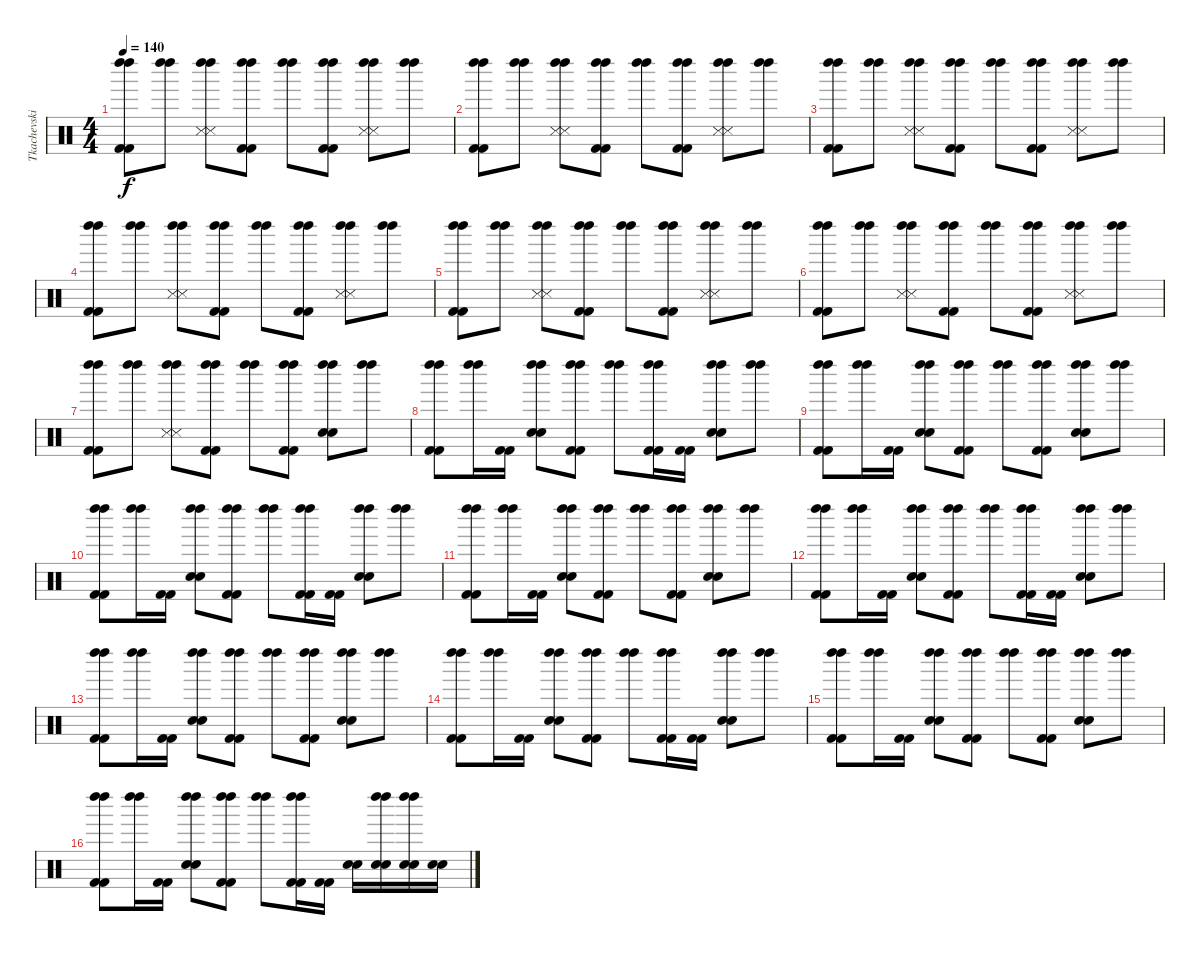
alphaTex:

\track ("Tkachevskiy A" "Tkachevski") {instrument percussion}
\staff {score}
\articulation defaults
\ts (4 4)
\tempo 140
\clef neutral
\ks c
("Kick (hit) 2" "Left Maraca (hit)" "Kick (hit) 2" "Left Maraca (hit)").8{dy f} ("Left Maraca (hit)" "Left Maraca (hit)").8 ("Snare (side stick) 3" "Left Maraca (hit)" "Snare (side stick) 3" "Left Maraca (hit)").8 ("Kick (hit) 2" "Left Maraca (hit)" "Kick (hit) 2" "Left Maraca (hit)").8 ("Left Maraca (hit)" "Left Maraca (hit)").8 ("Kick (hit) 2" "Left Maraca (hit)" "Kick (hit) 2" "Left Maraca (hit)").8 ("Snare (side stick) 3" "Left Maraca (hit)" "Snare (side stick) 3" "Left Maraca (hit)").8 ("Left Maraca (hit)" "Left Maraca (hit)").8 |
("Kick (hit) 2" "Left Maraca (hit)" "Kick (hit) 2" "Left Maraca (hit)").8 ("Left Maraca (hit)" "Left Maraca (hit)").8 ("Snare (side stick) 3" "Left Maraca (hit)" "Snare (side stick) 3" "Left Maraca (hit)").8 ("Kick (hit) 2" "Left Maraca (hit)" "Kick (hit) 2" "Left Maraca (hit)").8 ("Left Maraca (hit)" "Left Maraca (hit)").8 ("Kick (hit) 2" "Left Maraca (hit)" "Kick (hit) 2" "Left Maraca (hit)").8 ("Snare (side stick) 3" "Left Maraca (hit)" "Snare (side stick) 3" "Left Maraca (hit)").8 ("Left Maraca (hit)" "Left Maraca (hit)").8 |
("Kick (hit) 2" "Left Maraca (hit)" "Kick (hit) 2" "Left Maraca (hit)").8 ("Left Maraca (hit)" "Left Maraca (hit)").8 ("Snare (side stick) 3" "Left Maraca (hit)" "Snare (side stick) 3" "Left Maraca (hit)").8 ("Kick (hit) 2" "Left Maraca (hit)" "Kick (hit) 2" "Left Maraca (hit)").8 ("Left Maraca (hit)" "Left Maraca (hit)").8 ("Kick (hit) 2" "Left Maraca (hit)" "Kick (hit) 2" "Left Maraca (hit)").8 ("Snare (side stick) 3" "Left Maraca (hit)" "Snare (side stick) 3" "Left Maraca (hit)").8 ("Left Maraca (hit)" "Left Maraca (hit)").8 |
("Kick (hit) 2" "Left Maraca (hit)" "Kick (hit) 2" "Left Maraca (hit)").8 ("Left Maraca (hit)" "Left Maraca (hit)").8 ("Snare (side stick) 3" "Left Maraca (hit)" "Snare (side stick) 3" "Left Maraca (hit)").8 ("Kick (hit) 2" "Left Maraca (hit)" "Kick (hit) 2" "Left Maraca (hit)").8 ("Left Maraca (hit)" "Left Maraca (hit)").8 ("Kick (hit) 2" "Left Maraca (hit)" "Kick (hit) 2" "Left Maraca (hit)").8 ("Snare (side stick) 3" "Left Maraca (hit)" "Snare (side stick) 3" "Left Maraca (hit)").8 ("Left Maraca (hit)" "Left Maraca (hit)").8 |
("Kick (hit) 2" "Left Maraca (hit)" "Kick (hit) 2" "Left Maraca (hit)").8 ("Left Maraca (hit)" "Left Maraca (hit)").8 ("Snare (side stick) 3" "Left Maraca (hit)" "Snare (side stick) 3" "Left Maraca (hit)").8 ("Kick (hit) 2" "Left Maraca (hit)" "Kick (hit) 2" "Left Maraca (hit)").8 ("Left Maraca (hit)" "Left Maraca (hit)").8 ("Kick (hit) 2" "Left Maraca (hit)" "Kick (hit) 2" "Left Maraca (hit)").8 ("Snare (side stick) 3" "Left Maraca (hit)" "Snare (side stick) 3" "Left Maraca (hit)").8 ("Left Maraca (hit)" "Left Maraca (hit)").8 |
("Kick (hit) 2" "Left Maraca (hit)" "Kick (hit) 2" "Left Maraca (hit)").8 ("Left Maraca (hit)" "Left Maraca (hit)").8 ("Snare (side stick) 3" "Left Maraca (hit)" "Snare (side stick) 3" "Left Maraca (hit)").8 ("Kick (hit) 2" "Left Maraca (hit)" "Kick (hit) 2" "Left Maraca (hit)").8 ("Left Maraca (hit)" "Left Maraca (hit)").8 ("Kick (hit) 2" "Left Maraca (hit)" "Kick (hit) 2" "Left Maraca (hit)").8 ("Snare (side stick) 3" "Left Maraca (hit)" "Snare (side stick) 3" "Left Maraca (hit)").8 ("Left Maraca (hit)" "Left Maraca (hit)").8 |
("Kick (hit) 2" "Left Maraca (hit)" "Kick (hit) 2" "Left Maraca (hit)").8 ("Left Maraca (hit)" "Left Maraca (hit)").8 ("Snare (side stick) 3" "Left Maraca (hit)" "Snare (side stick) 3" "Left Maraca (hit)").8 ("Kick (hit) 2" "Left Maraca (hit)" "Kick (hit) 2" "Left Maraca (hit)").8 ("Left Maraca (hit)" "Left Maraca (hit)").8 ("Kick (hit) 2" "Left Maraca (hit)" "Kick (hit) 2" "Left Maraca (hit)").8 ("Snare (hit) 2" "Left Maraca (hit)" "Snare (hit) 2" "Left Maraca (hit)").8 ("Left Maraca (hit)" "Left Maraca (hit)").8 |
("Kick (hit) 2" "Left Maraca (hit)" "Kick (hit) 2" "Left Maraca (hit)").8 ("Left Maraca (hit)" "Left Maraca (hit)").16 ("Kick (hit) 2" "Kick (hit) 2").16 ("Snare (hit) 2" "Left Maraca (hit)" "Snare (hit) 2" "Left Maraca (hit)").8 ("Kick (hit) 2" "Left Maraca (hit)" "Kick (hit) 2" "Left Maraca (hit)").8 ("Left Maraca (hit)" "Left Maraca (hit)").8 ("Kick (hit) 2" "Left Maraca (hit)" "Kick (hit) 2" "Left Maraca (hit)").16 ("Kick (hit) 2" "Kick (hit) 2").16 ("Snare (hit) 2" "Left Maraca (hit)" "Snare (hit) 2" "Left Maraca (hit)").8 ("Left Maraca (hit)" "Left Maraca (hit)").8 |
("Kick (hit) 2" "Left Maraca (hit)" "Kick (hit) 2" "Left Maraca (hit)").8 ("Left Maraca (hit)" "Left Maraca (hit)").16 ("Kick (hit) 2" "Kick (hit) 2").16 ("Snare (hit) 2" "Left Maraca (hit)" "Snare (hit) 2" "Left Maraca (hit)").8 ("Kick (hit) 2" "Left Maraca (hit)" "Kick (hit) 2" "Left Maraca (hit)").8 ("Left Maraca (hit)" "Left Maraca (hit)").8 ("Kick (hit) 2" "Left Maraca (hit)" "Kick (hit) 2" "Left Maraca (hit)").8 ("Snare (hit) 2" "Left Maraca (hit)" "Snare (hit) 2" "Left Maraca (hit)").8 ("Left Maraca (hit)" "Left Maraca (hit)").8 |
("Kick (hit) 2" "Left Maraca (hit)" "Kick (hit) 2" "Left Maraca (hit)").8 ("Left Maraca (hit)" "Left Maraca (hit)").16 ("Kick (hit) 2" "Kick (hit) 2").16 ("Snare (hit) 2" "Left Maraca (hit)" "Snare (hit) 2" "Left Maraca (hit)").8 ("Kick (hit) 2" "Left Maraca (hit)" "Kick (hit) 2" "Left Maraca (hit)").8 ("Left Maraca (hit)" "Left Maraca (hit)").8 ("Kick (hit) 2" "Left Maraca (hit)" "Kick (hit) 2" "Left Maraca (hit)").16 ("Kick (hit) 2" "Kick (hit) 2").16 ("Snare (hit) 2" "Left Maraca (hit)" "Snare (hit) 2" "Left Maraca (hit)").8 ("Left Maraca (hit)" "Left Maraca (hit)").8 |
("Kick (hit) 2" "Left Maraca (hit)" "Kick (hit) 2" "Left Maraca (hit)").8 ("Left Maraca (hit)" "Left Maraca (hit)").16 ("Kick (hit) 2" "Kick (hit) 2").16 ("Snare (hit) 2" "Left Maraca (hit)" "Snare (hit) 2" "Left Maraca (hit)").8 ("Kick (hit) 2" "Left Maraca (hit)" "Kick (hit) 2" "Left Maraca (hit)").8 ("Left Maraca (hit)" "Left Maraca (hit)").8 ("Kick (hit) 2" "Left Maraca (hit)" "Kick (hit) 2" "Left Maraca (hit)").8 ("Snare (hit) 2" "Left Maraca (hit)" "Snare (hit) 2" "Left Maraca (hit)").8 ("Left Maraca (hit)" "Left Maraca (hit)").8 |
("Kick (hit) 2" "Left Maraca (hit)" "Kick (hit) 2" "Left Maraca (hit)").8 ("Left Maraca (hit)" "Left Maraca (hit)").16 ("Kick (hit) 2" "Kick (hit) 2").16 ("Snare (hit) 2" "Left Maraca (hit)" "Snare (hit) 2" "Left Maraca (hit)").8 ("Kick (hit) 2" "Left Maraca (hit)" "Kick (hit) 2" "Left Maraca (hit)").8 ("Left Maraca (hit)" "Left Maraca (hit)").8 ("Kick (hit) 2" "Left Maraca (hit)" "Kick (hit) 2" "Left Maraca (hit)").16 ("Kick (hit) 2" "Kick (hit) 2").16 ("Snare (hit) 2" "Left Maraca (hit)" "Snare (hit) 2" "Left Maraca (hit)").8 ("Left Maraca (hit)" "Left Maraca (hit)").8 |
("Kick (hit) 2" "Left Maraca (hit)" "Kick (hit) 2" "Left Maraca (hit)").8 ("Left Maraca (hit)" "Left Maraca (hit)").16 ("Kick (hit) 2" "Kick (hit) 2").16 ("Snare (hit) 2" "Left Maraca (hit)" "Snare (hit) 2" "Left Maraca (hit)").8 ("Kick (hit) 2" "Left Maraca (hit)" "Kick (hit) 2" "Left Maraca (hit)").8 ("Left Maraca (hit)" "Left Maraca (hit)").8 ("Kick (hit) 2" "Left Maraca (hit)" "Kick (hit) 2" "Left Maraca (hit)").8 ("Snare (hit) 2" "Left Maraca (hit)" "Snare (hit) 2" "Left Maraca (hit)").8 ("Left Maraca (hit)" "Left Maraca (hit)").8 |
("Kick (hit) 2" "Left Maraca (hit)" "Kick (hit) 2" "Left Maraca (hit)").8 ("Left Maraca (hit)" "Left Maraca (hit)").16 ("Kick (hit) 2" "Kick (hit) 2").16 ("Snare (hit) 2" "Left Maraca (hit)" "Snare (hit) 2" "Left Maraca (hit)").8 ("Kick (hit) 2" "Left Maraca (hit)" "Kick (hit) 2" "Left Maraca (hit)").8 ("Left Maraca (hit)" "Left Maraca (hit)").8 ("Kick (hit) 2" "Left Maraca (hit)" "Kick (hit) 2" "Left Maraca (hit)").16 ("Kick (hit) 2" "Kick (hit) 2").16 ("Snare (hit) 2" "Left Maraca (hit)" "Snare (hit) 2" "Left Maraca (hit)").8 ("Left Maraca (hit)" "Left Maraca (hit)").8 |
("Kick (hit) 2" "Left Maraca (hit)" "Kick (hit) 2" "Left Maraca (hit)").8 ("Left Maraca (hit)" "Left Maraca (hit)").16 ("Kick (hit) 2" "Kick (hit) 2").16 ("Snare (hit) 2" "Left Maraca (hit)" "Snare (hit) 2" "Left Maraca (hit)").8 ("Kick (hit) 2" "Left Maraca (hit)" "Kick (hit) 2" "Left Maraca (hit)").8 ("Left Maraca (hit)" "Left Maraca (hit)").8 ("Kick (hit) 2" "Left Maraca (hit)" "Kick (hit) 2" "Left Maraca (hit)").8 ("Snare (hit) 2" "Left Maraca (hit)" "Snare (hit) 2" "Left Maraca (hit)").8 ("Left Maraca (hit)" "Left Maraca (hit)").8 |
("Kick (hit) 2" "Left Maraca (hit)" "Kick (hit) 2" "Left Maraca (hit)").8 ("Left Maraca (hit)" "Left Maraca (hit)").16 ("Kick (hit) 2" "Kick (hit) 2").16 ("Snare (hit) 2" "Left Maraca (hit)" "Snare (hit) 2" "Left Maraca (hit)").8 ("Kick (hit) 2" "Left Maraca (hit)" "Kick (hit) 2" "Left Maraca (hit)").8 ("Left Maraca (hit)" "Left Maraca (hit)").8 ("Kick (hit) 2" "Left Maraca (hit)" "Kick (hit) 2" "Left Maraca (hit)").16 ("Kick (hit) 2" "Kick (hit) 2").16 ("Snare (hit) 2" "Snare (hit) 2").16 ("Snare (hit) 2" "Left Maraca (hit)" "Snare (hit) 2" "Left Maraca (hit)").16 ("Snare (hit) 2" "Left Maraca (hit)" "Snare (hit) 2" "Left Maraca (hit)").16 ("Snare (hit) 2" "Snare (hit) 2").16
